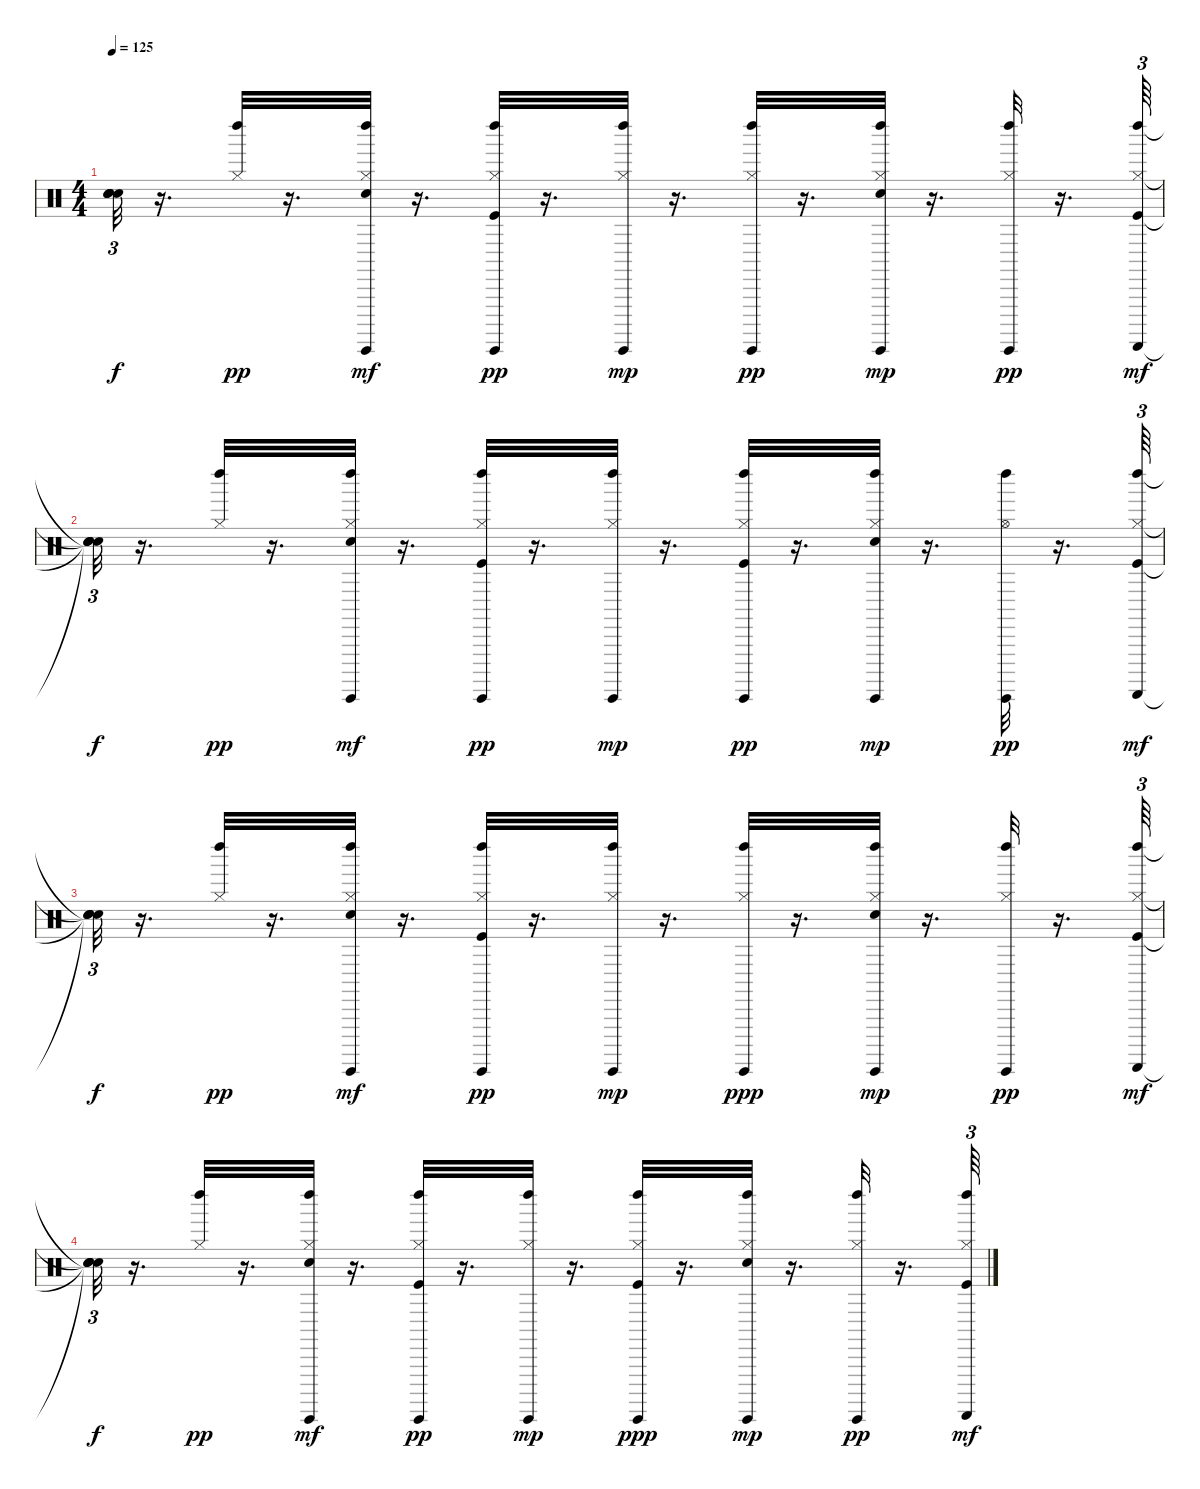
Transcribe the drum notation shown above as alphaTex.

\track "" {instrument percussion}
\staff {score}
\articulation defaults
\ts (4 4)
\tempo 125
\clef neutral
\ks c
("Snare (hit)"{t} "Snare (hit)"{t} "Snare (hit)"{t} "Snare (hit)"{t}).32{tu (3 2) dy f} r.16{d} ("Hi-Hat (closed)" "Left Maraca (hit)").32{dy pp} r.16{d} ("Hi-Hat (closed)" "Left Maraca (hit)" "Electric Snare (hit)" "Guiro (hit)").32{dy mf} r.16{d} ("Kick (hit)" "Hi-Hat (closed)" "Left Maraca (hit)" "Guiro (hit)").32{dy pp} r.16{d} ("Hi-Hat (closed)" "Left Maraca (hit)" "Guiro (hit)").32{dy mp} r.16{d} ("Hi-Hat (closed)" "Left Maraca (hit)" "Guiro (hit)").32{dy pp} r.16{d} ("Left Maraca (hit)" "Electric Snare (hit)" "Hi-Hat (closed)" "Guiro (hit)").32{dy mp} r.16{d} ("Hi-Hat (closed)" "Left Maraca (hit)" "Guiro (hit)").32{dy pp} r.16{d} ("Kick (hit)" "Hi-Hat (closed)" "Left Maraca (hit)" "Guiro (scrap-return)").64{tu (3 2) dy mf} |
("Snare (hit)"{t} "Snare (hit)"{t} "Snare (hit)"{t} "Snare (hit)"{t}).32{tu (3 2) dy f} r.16{d} ("Hi-Hat (closed)" "Left Maraca (hit)").32{dy pp} r.16{d} ("Electric Snare (hit)" "Hi-Hat (closed)" "Left Maraca (hit)" "Guiro (hit)").32{dy mf} r.16{d} ("Left Maraca (hit)" "Kick (hit)" "Hi-Hat (closed)" "Guiro (hit)").32{dy pp} r.16{d} ("Left Maraca (hit)" "Hi-Hat (closed)" "Guiro (hit)").32{dy mp} r.16{d} ("Hi-Hat (closed)" "Kick (hit)" "Left Maraca (hit)" "Guiro (hit)").32{dy pp} r.16{d} ("Electric Snare (hit)" "Hi-Hat (closed)" "Left Maraca (hit)" "Guiro (hit)").32{dy mp} r.16{d} ("Left Maraca (hit)" "Hi-Hat (open)" "Guiro (hit)").32{dy pp} r.16{d} ("Left Maraca (hit)" "Hi-Hat (closed)" "Kick (hit)" "Guiro (scrap-return)").64{tu (3 2) dy mf} |
("Snare (hit)"{t} "Snare (hit)"{t} "Snare (hit)"{t} "Snare (hit)"{t}).32{tu (3 2) dy f} r.16{d} ("Hi-Hat (closed)" "Left Maraca (hit)").32{dy pp} r.16{d} ("Left Maraca (hit)" "Electric Snare (hit)" "Hi-Hat (closed)" "Guiro (hit)").32{dy mf} r.16{d} ("Left Maraca (hit)" "Hi-Hat (closed)" "Kick (hit)" "Guiro (hit)").32{dy pp} r.16{d} ("Hi-Hat (closed)" "Left Maraca (hit)" "Guiro (hit)").32{dy mp} r.16{d} ("Left Maraca (hit)" "Hi-Hat (closed)" "Guiro (hit)").32{dy ppp} r.16{d} ("Hi-Hat (closed)" "Left Maraca (hit)" "Electric Snare (hit)" "Guiro (hit)").32{dy mp} r.16{d} ("Left Maraca (hit)" "Hi-Hat (closed)" "Guiro (hit)").32{dy pp} r.16{d} ("Hi-Hat (closed)" "Left Maraca (hit)" "Kick (hit)" "Guiro (scrap-return)").64{tu (3 2) dy mf} |
("Snare (hit)"{t} "Snare (hit)"{t} "Snare (hit)"{t} "Snare (hit)"{t}).32{tu (3 2) dy f} r.16{d} ("Hi-Hat (closed)" "Left Maraca (hit)").32{dy pp} r.16{d} ("Electric Snare (hit)" "Hi-Hat (closed)" "Left Maraca (hit)" "Guiro (hit)").32{dy mf} r.16{d} ("Left Maraca (hit)" "Hi-Hat (closed)" "Kick (hit)" "Guiro (hit)").32{dy pp} r.16{d} ("Left Maraca (hit)" "Hi-Hat (closed)" "Guiro (hit)").32{dy mp} r.16{d} ("Left Maraca (hit)" "Hi-Hat (closed)" "Kick (hit)" "Guiro (hit)").32{dy ppp} r.16{d} ("Left Maraca (hit)" "Electric Snare (hit)" "Hi-Hat (closed)" "Guiro (hit)").32{dy mp} r.16{d} ("Hi-Hat (closed)" "Left Maraca (hit)" "Guiro (hit)").32{dy pp} r.16{d} ("Left Maraca (hit)" "Kick (hit)" "Hi-Hat (closed)" "Guiro (scrap-return)").64{tu (3 2) dy mf}
